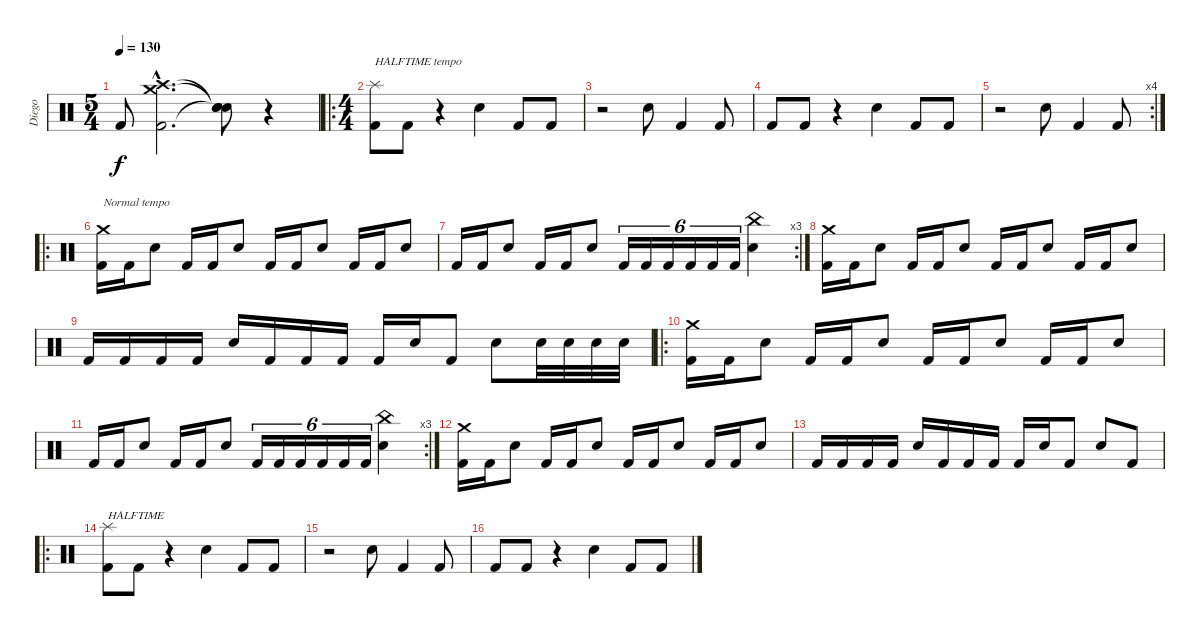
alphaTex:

\track ("Diego" "Diego") {instrument percussion}
\staff {score}
\articulation defaults
\ts (5 4)
\tempo 130
\clef neutral
\ks c "Kick (hit) 2".8{dy f}
("Crash high (hit)"{hac} "Crash medium (hit)"{hac} "Kick (hit) 2"{hac}).2{d} ("Snare (hit)"{t} "Snare (hit)"{t} "Snare (hit)"{t}).8 r.4 |
\ro
\ts (4 4)
("Splash (hit)" "Kick (hit) 2").8{txt "HALFTIME tempo"} "Kick (hit) 2".8 r.4 "Snare (hit) 2".4 "Kick (hit) 2".8 "Kick (hit) 2".8 |
r.2 "Snare (hit) 2".8 "Kick (hit) 2".4 "Kick (hit) 2".8 |
"Kick (hit) 2".8 "Kick (hit) 2".8 r.4 "Snare (hit) 2".4 "Kick (hit) 2".8 "Kick (hit) 2".8 |
\rc 4
r.2 "Snare (hit) 2".8 "Kick (hit) 2".4 "Kick (hit) 2".8 |
\ro
("Crash medium (hit)" "Kick (hit) 2").16{txt "Normal tempo"} "Kick (hit) 2".16 "Snare (hit) 2".8 "Kick (hit) 2".16 "Kick (hit) 2".16 "Snare (hit) 2".8 "Kick (hit) 2".16 "Kick (hit) 2".16 "Snare (hit) 2".8 "Kick (hit) 2".16 "Kick (hit) 2".16 "Snare (hit) 2".8 |
\rc 3 "Kick (hit) 2".16 "Kick (hit) 2".16 "Snare (hit) 2".8 "Kick (hit) 2".16 "Kick (hit) 2".16 "Snare (hit) 2".8 "Kick (hit) 2".16{tu (6 4)} "Kick (hit) 2".16{tu (6 4)} "Kick (hit) 2".16{tu (6 4)} "Kick (hit) 2".16{tu (6 4)} "Kick (hit) 2".16{tu (6 4)} "Kick (hit) 2".16{tu (6 4)}
("China (hit)" "Snare (hit) 2").4 |
("Crash medium (hit)" "Kick (hit) 2").16 "Kick (hit) 2".16 "Snare (hit) 2".8 "Kick (hit) 2".16 "Kick (hit) 2".16 "Snare (hit) 2".8 "Kick (hit) 2".16 "Kick (hit) 2".16 "Snare (hit) 2".8 "Kick (hit) 2".16 "Kick (hit) 2".16 "Snare (hit) 2".8 |
"Kick (hit) 2".16 "Kick (hit) 2".16 "Kick (hit) 2".16 "Kick (hit) 2".16 "Snare (hit) 2".16 "Kick (hit) 2".16 "Kick (hit) 2".16 "Kick (hit) 2".16 "Kick (hit) 2".16 "Snare (hit) 2".16 "Kick (hit) 2".8 "Snare (hit) 2".8 "Snare (hit) 2".32 "Snare (hit) 2".32 "Snare (hit) 2".32 "Snare (hit) 2".32 |
\ro
("Crash medium (hit)" "Kick (hit) 2").16 "Kick (hit) 2".16 "Snare (hit) 2".8 "Kick (hit) 2".16 "Kick (hit) 2".16 "Snare (hit) 2".8 "Kick (hit) 2".16 "Kick (hit) 2".16 "Snare (hit) 2".8 "Kick (hit) 2".16 "Kick (hit) 2".16 "Snare (hit) 2".8 |
\rc 3 "Kick (hit) 2".16 "Kick (hit) 2".16 "Snare (hit) 2".8 "Kick (hit) 2".16 "Kick (hit) 2".16 "Snare (hit) 2".8 "Kick (hit) 2".16{tu (6 4)} "Kick (hit) 2".16{tu (6 4)} "Kick (hit) 2".16{tu (6 4)} "Kick (hit) 2".16{tu (6 4)} "Kick (hit) 2".16{tu (6 4)} "Kick (hit) 2".16{tu (6 4)}
("China (hit)" "Snare (hit) 2").4 |
("Crash medium (hit)" "Kick (hit) 2").16 "Kick (hit) 2".16 "Snare (hit) 2".8 "Kick (hit) 2".16 "Kick (hit) 2".16 "Snare (hit) 2".8 "Kick (hit) 2".16 "Kick (hit) 2".16 "Snare (hit) 2".8 "Kick (hit) 2".16 "Kick (hit) 2".16 "Snare (hit) 2".8 |
"Kick (hit) 2".16 "Kick (hit) 2".16 "Kick (hit) 2".16 "Kick (hit) 2".16 "Snare (hit) 2".16 "Kick (hit) 2".16 "Kick (hit) 2".16 "Kick (hit) 2".16 "Kick (hit) 2".16 "Snare (hit) 2".16 "Kick (hit) 2".8 "Snare (hit) 2".8 "Kick (hit) 2".8 |
\ro
("Splash (hit)" "Kick (hit) 2").8{txt "HALFTIME"} "Kick (hit) 2".8 r.4 "Snare (hit) 2".4 "Kick (hit) 2".8 "Kick (hit) 2".8 |
r.2 "Snare (hit) 2".8 "Kick (hit) 2".4 "Kick (hit) 2".8 |
"Kick (hit) 2".8 "Kick (hit) 2".8 r.4 "Snare (hit) 2".4 "Kick (hit) 2".8 "Kick (hit) 2".8
